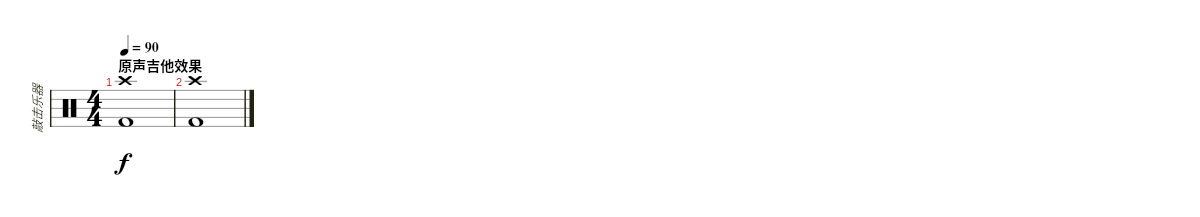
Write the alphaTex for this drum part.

\track ("敲击乐器" "敲击乐器") {instrument percussion}
\staff {score}
\articulation defaults
\ts (4 4)
\section ("" "原声吉他效果")
\tempo 90
\clef neutral
\ks c
("Crash high (hit)" "Kick (hit) 2").1{dy f} |
("Crash high (hit)" "Kick (hit) 2").1
